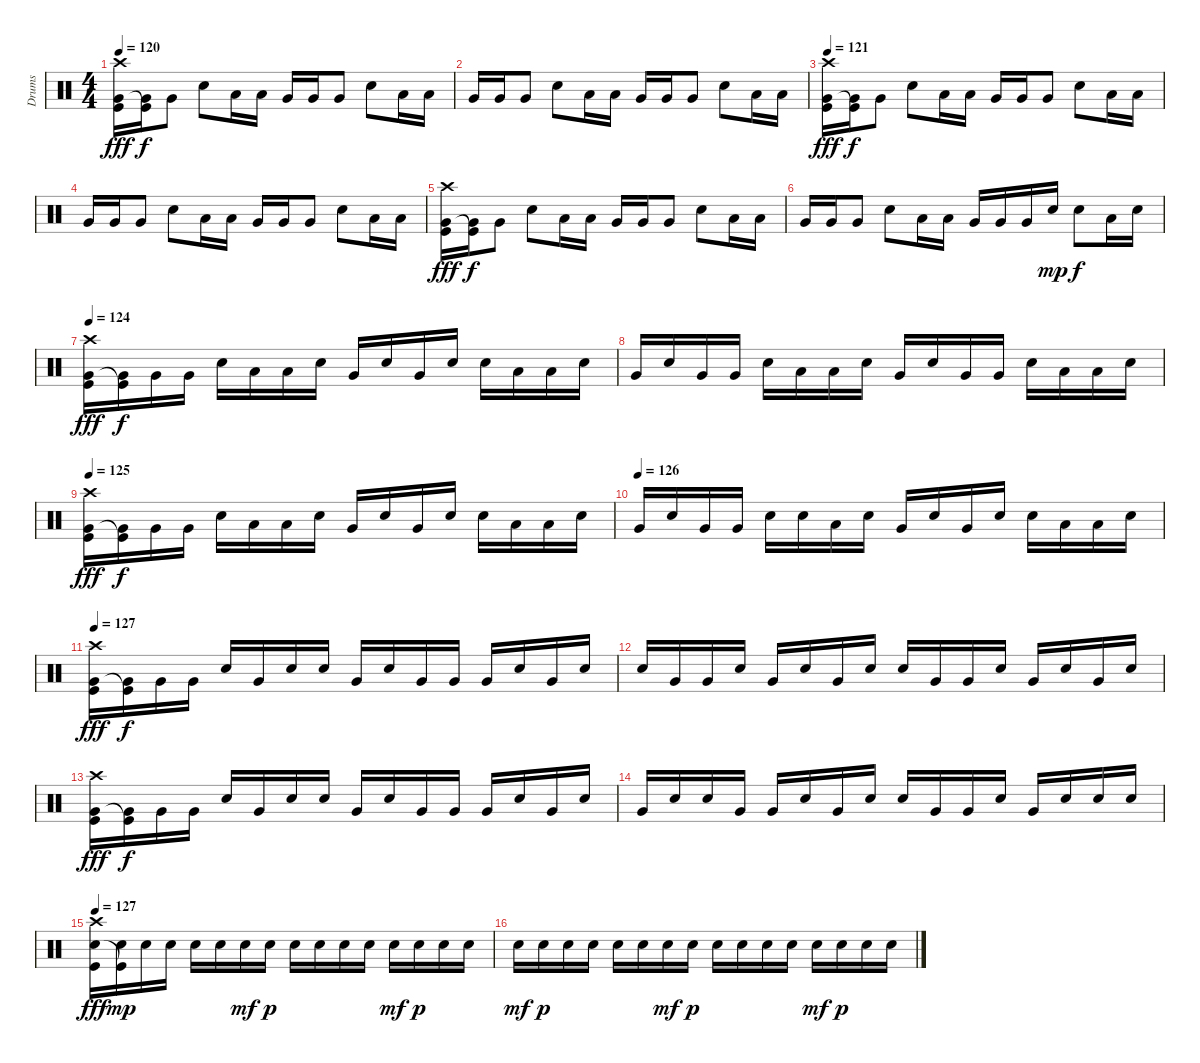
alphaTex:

\track ("Drums" "Drums") {instrument percussion}
\staff {score}
\articulation defaults
\ts (4 4)
\tempo 120
\clef neutral
\ks c
("Crash high (hit)" "Very Low Tom (hit)" "Kick (hit)").16{dy fff} ("Very Low Tom (hit)" "Kick (hit)"{t}).16{dy f} "Very Low Tom (hit)".8 "Snare (hit) 2".8 "Low Tom (hit)".16 "Low Tom (hit)".16 "Very Low Tom (hit)".16 "Very Low Tom (hit)".16 "Very Low Tom (hit)".8 "Snare (hit) 2".8 "Low Tom (hit)".16 "Low Tom (hit)".16 |
"Very Low Tom (hit)".16 "Very Low Tom (hit)".16 "Very Low Tom (hit)".8 "Snare (hit) 2".8 "Low Tom (hit)".16 "Low Tom (hit)".16 "Very Low Tom (hit)".16 "Very Low Tom (hit)".16 "Very Low Tom (hit)".8 "Snare (hit) 2".8 "Low Tom (hit)".16 "Low Tom (hit)".16 |
\tempo 121
("Crash high (hit)" "Very Low Tom (hit)" "Kick (hit)").16{dy fff} ("Very Low Tom (hit)" "Kick (hit)"{t}).16{dy f} "Very Low Tom (hit)".8 "Snare (hit) 2".8 "Low Tom (hit)".16 "Low Tom (hit)".16 "Very Low Tom (hit)".16 "Very Low Tom (hit)".16 "Very Low Tom (hit)".8 "Snare (hit) 2".8 "Low Tom (hit)".16 "Low Tom (hit)".16 |
"Very Low Tom (hit)".16 "Very Low Tom (hit)".16 "Very Low Tom (hit)".8 "Snare (hit) 2".8 "Low Tom (hit)".16 "Low Tom (hit)".16 "Very Low Tom (hit)".16 "Very Low Tom (hit)".16 "Very Low Tom (hit)".8 "Snare (hit) 2".8 "Low Tom (hit)".16 "Low Tom (hit)".16 |
("Crash high (hit)" "Very Low Tom (hit)" "Kick (hit)").16{dy fff} ("Very Low Tom (hit)" "Kick (hit)"{t}).16{dy f} "Very Low Tom (hit)".8 "Snare (hit) 2".8 "Low Tom (hit)".16 "Low Tom (hit)".16 "Very Low Tom (hit)".16 "Very Low Tom (hit)".16 "Very Low Tom (hit)".8 "Snare (hit) 2".8 "Low Tom (hit)".16 "Low Tom (hit)".16 |
"Very Low Tom (hit)".16 "Very Low Tom (hit)".16 "Very Low Tom (hit)".8 "Snare (hit) 2".8 "Low Tom (hit)".16 "Low Tom (hit)".16 "Very Low Tom (hit)".16 "Very Low Tom (hit)".16 "Very Low Tom (hit)".16 "Snare (hit) 2".16{dy mp} "Snare (hit) 2".8{dy f} "Low Tom (hit)".16 "Snare (hit) 2".16 |
\tempo 124
("Crash high (hit)" "Very Low Tom (hit)" "Kick (hit)").16{dy fff} ("Very Low Tom (hit)" "Kick (hit)"{t}).16{dy f} "Very Low Tom (hit)".16 "Very Low Tom (hit)".16 "Snare (hit) 2".16 "Low Tom (hit)".16 "Low Tom (hit)".16 "Snare (hit) 2".16 "Very Low Tom (hit)".16 "Snare (hit) 2".16 "Very Low Tom (hit)".16 "Snare (hit) 2".16 "Snare (hit) 2".16 "Low Tom (hit)".16 "Low Tom (hit)".16 "Snare (hit) 2".16 |
"Very Low Tom (hit)".16 "Snare (hit) 2".16 "Very Low Tom (hit)".16 "Very Low Tom (hit)".16 "Snare (hit) 2".16 "Low Tom (hit)".16 "Low Tom (hit)".16 "Snare (hit) 2".16 "Very Low Tom (hit)".16 "Snare (hit) 2".16 "Very Low Tom (hit)".16 "Very Low Tom (hit)".16 "Snare (hit) 2".16 "Low Tom (hit)".16 "Low Tom (hit)".16 "Snare (hit) 2".16 |
\tempo 125
("Crash high (hit)" "Very Low Tom (hit)" "Kick (hit)").16{dy fff} ("Very Low Tom (hit)" "Kick (hit)"{t}).16{dy f} "Very Low Tom (hit)".16 "Very Low Tom (hit)".16 "Snare (hit) 2".16 "Low Tom (hit)".16 "Low Tom (hit)".16 "Snare (hit) 2".16 "Very Low Tom (hit)".16 "Snare (hit) 2".16 "Very Low Tom (hit)".16 "Snare (hit) 2".16 "Snare (hit) 2".16 "Low Tom (hit)".16 "Low Tom (hit)".16 "Snare (hit) 2".16 |
\tempo (126)
"Very Low Tom (hit)".16 "Snare (hit) 2".16 "Very Low Tom (hit)".16 "Very Low Tom (hit)".16 "Snare (hit) 2".16 "Snare (hit) 2".16 "Low Tom (hit)".16 "Snare (hit) 2".16 "Very Low Tom (hit)".16 "Snare (hit) 2".16 "Very Low Tom (hit)".16 "Snare (hit) 2".16 "Snare (hit) 2".16 "Low Tom (hit)".16 "Low Tom (hit)".16 "Snare (hit) 2".16 |
\tempo 127
("Crash high (hit)" "Very Low Tom (hit)" "Kick (hit)").16{dy fff} ("Very Low Tom (hit)" "Kick (hit)"{t}).16{dy f} "Very Low Tom (hit)".16 "Very Low Tom (hit)".16 "Snare (hit) 2".16 "Very Low Tom (hit)".16 "Snare (hit) 2".16 "Snare (hit) 2".16 "Very Low Tom (hit)".16 "Snare (hit) 2".16 "Very Low Tom (hit)".16 "Very Low Tom (hit)".16 "Very Low Tom (hit)".16 "Snare (hit) 2".16 "Very Low Tom (hit)".16 "Snare (hit) 2".16 |
"Snare (hit) 2".16 "Very Low Tom (hit)".16 "Very Low Tom (hit)".16 "Snare (hit) 2".16 "Very Low Tom (hit)".16 "Snare (hit) 2".16 "Very Low Tom (hit)".16 "Snare (hit) 2".16 "Snare (hit) 2".16 "Very Low Tom (hit)".16 "Very Low Tom (hit)".16 "Snare (hit) 2".16 "Very Low Tom (hit)".16 "Snare (hit) 2".16 "Very Low Tom (hit)".16 "Snare (hit) 2".16 |
("Crash high (hit)" "Very Low Tom (hit)" "Kick (hit)").16{dy fff} ("Very Low Tom (hit)" "Kick (hit)"{t}).16{dy f} "Very Low Tom (hit)".16 "Very Low Tom (hit)".16 "Snare (hit) 2".16 "Very Low Tom (hit)".16 "Snare (hit) 2".16 "Snare (hit) 2".16 "Very Low Tom (hit)".16 "Snare (hit) 2".16 "Very Low Tom (hit)".16 "Very Low Tom (hit)".16 "Very Low Tom (hit)".16 "Snare (hit) 2".16 "Very Low Tom (hit)".16 "Snare (hit) 2".16 |
"Very Low Tom (hit)".16 "Snare (hit) 2".16 "Snare (hit) 2".16 "Very Low Tom (hit)".16 "Very Low Tom (hit)".16 "Snare (hit) 2".16 "Very Low Tom (hit)".16 "Snare (hit) 2".16 "Snare (hit) 2".16 "Very Low Tom (hit)".16 "Very Low Tom (hit)".16 "Snare (hit) 2".16 "Very Low Tom (hit)".16 "Snare (hit) 2".16 "Snare (hit) 2".16 "Snare (hit) 2".16 |
\tempo 127
("Crash high (hit)" "Snare (hit) 2" "Kick (hit)").16{dy fff} ("Snare (hit) 2" "Kick (hit)"{t}).16{dy mp} "Snare (hit) 2".16 "Snare (hit) 2".16 "Snare (hit) 2".16 "Snare (hit) 2".16 "Snare (hit) 2".16{dy mf} "Snare (hit) 2".16{dy p} "Snare (hit) 2".16 "Snare (hit) 2".16 "Snare (hit) 2".16 "Snare (hit) 2".16 "Snare (hit) 2".16{dy mf} "Snare (hit) 2".16{dy p} "Snare (hit) 2".16 "Snare (hit) 2".16 |
"Snare (hit) 2".16{dy mf} "Snare (hit) 2".16{dy p} "Snare (hit) 2".16 "Snare (hit) 2".16 "Snare (hit) 2".16 "Snare (hit) 2".16 "Snare (hit) 2".16{dy mf} "Snare (hit) 2".16{dy p} "Snare (hit) 2".16 "Snare (hit) 2".16 "Snare (hit) 2".16 "Snare (hit) 2".16 "Snare (hit) 2".16{dy mf} "Snare (hit) 2".16{dy p} "Snare (hit) 2".16 "Snare (hit) 2".16
